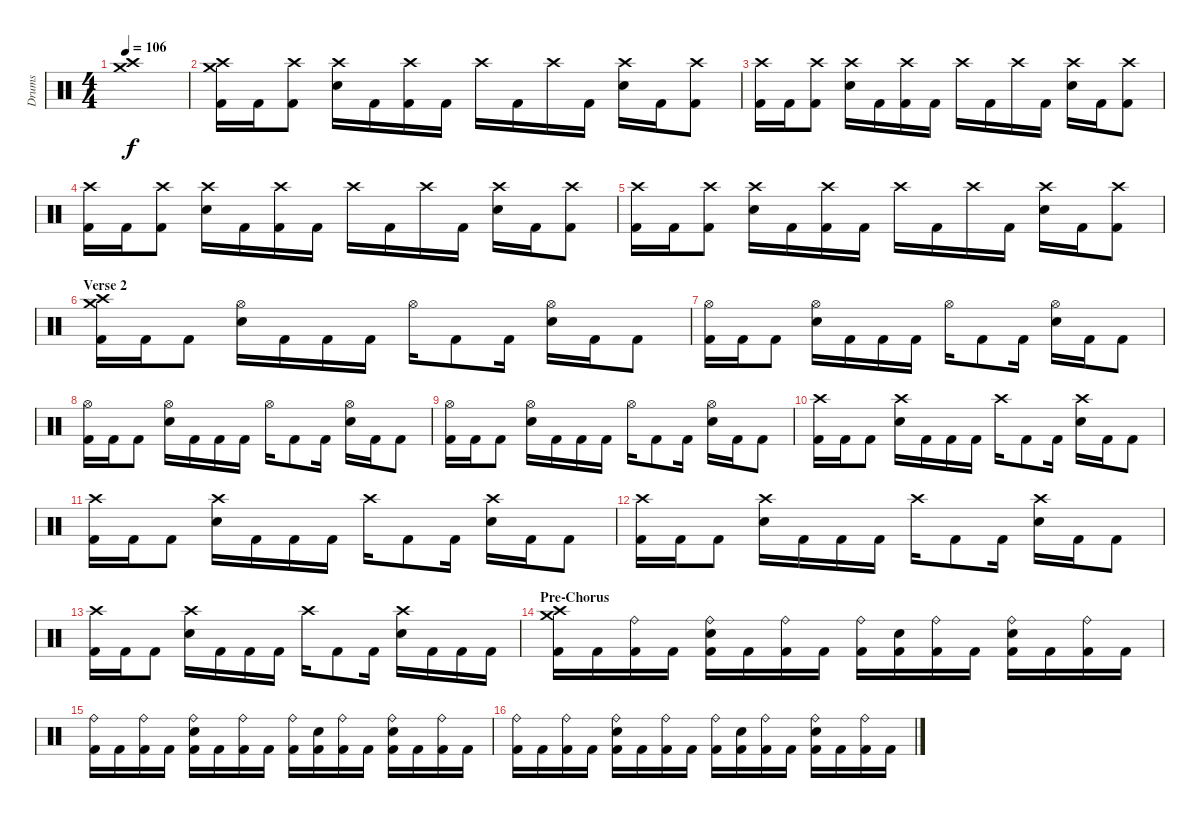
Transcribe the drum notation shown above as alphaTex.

\track ("Drums" "Drums") {instrument percussion}
\staff {score}
\articulation defaults
\ts (4 4)
\tempo 106
\clef neutral
\ks c
("Crash high (hit)" "Crash medium (hit)").1{dy f} |
("Crash high (hit)" "Crash medium (hit)" "Kick (hit) 2").16 "Kick (hit) 2".16 ("Crash high (hit)" "Kick (hit) 2").8 ("Crash high (hit)" "Electric Snare (hit)").16 "Kick (hit) 2".16 ("Crash high (hit)" "Kick (hit) 2").16 "Kick (hit) 2".16 "Crash high (hit)".16 "Kick (hit) 2".16 "Crash high (hit)".16 "Kick (hit) 2".16 ("Crash high (hit)" "Electric Snare (hit)").16 "Kick (hit) 2".16 ("Crash high (hit)" "Kick (hit) 2").8 |
("Crash high (hit)" "Kick (hit) 2").16 "Kick (hit) 2".16 ("Crash high (hit)" "Kick (hit) 2").8 ("Crash high (hit)" "Electric Snare (hit)").16 "Kick (hit) 2".16 ("Crash high (hit)" "Kick (hit) 2").16 "Kick (hit) 2".16 "Crash high (hit)".16 "Kick (hit) 2".16 "Crash high (hit)".16 "Kick (hit) 2".16 ("Crash high (hit)" "Electric Snare (hit)").16 "Kick (hit) 2".16 ("Crash high (hit)" "Kick (hit) 2").8 |
("Crash high (hit)" "Kick (hit) 2").16 "Kick (hit) 2".16 ("Crash high (hit)" "Kick (hit) 2").8 ("Crash high (hit)" "Electric Snare (hit)").16 "Kick (hit) 2".16 ("Crash high (hit)" "Kick (hit) 2").16 "Kick (hit) 2".16 "Crash high (hit)".16 "Kick (hit) 2".16 "Crash high (hit)".16 "Kick (hit) 2".16 ("Crash high (hit)" "Electric Snare (hit)").16 "Kick (hit) 2".16 ("Crash high (hit)" "Kick (hit) 2").8 |
("Crash high (hit)" "Kick (hit) 2").16 "Kick (hit) 2".16 ("Crash high (hit)" "Kick (hit) 2").8 ("Crash high (hit)" "Electric Snare (hit)").16 "Kick (hit) 2".16 ("Crash high (hit)" "Kick (hit) 2").16 "Kick (hit) 2".16 "Crash high (hit)".16 "Kick (hit) 2".16 "Crash high (hit)".16 "Kick (hit) 2".16 ("Crash high (hit)" "Electric Snare (hit)").16 "Kick (hit) 2".16 ("Crash high (hit)" "Kick (hit) 2").8 |
\section ("" "Verse 2")
("Crash high (hit)" "Crash medium (hit)" "Kick (hit) 2").16 "Kick (hit) 2".16 "Kick (hit) 2".8 ("Hi-Hat (open)" "Electric Snare (hit)").16 "Kick (hit) 2".16 "Kick (hit) 2".16 "Kick (hit) 2".16 "Hi-Hat (open)".16 "Kick (hit) 2".8 "Kick (hit) 2".16 ("Hi-Hat (open)" "Electric Snare (hit)").16 "Kick (hit) 2".16 "Kick (hit) 2".8 |
("Hi-Hat (open)" "Kick (hit) 2").16 "Kick (hit) 2".16 "Kick (hit) 2".8 ("Hi-Hat (open)" "Electric Snare (hit)").16 "Kick (hit) 2".16 "Kick (hit) 2".16 "Kick (hit) 2".16 "Hi-Hat (open)".16 "Kick (hit) 2".8 "Kick (hit) 2".16 ("Hi-Hat (open)" "Electric Snare (hit)").16 "Kick (hit) 2".16 "Kick (hit) 2".8 |
("Hi-Hat (open)" "Kick (hit) 2").16 "Kick (hit) 2".16 "Kick (hit) 2".8 ("Hi-Hat (open)" "Electric Snare (hit)").16 "Kick (hit) 2".16 "Kick (hit) 2".16 "Kick (hit) 2".16 "Hi-Hat (open)".16 "Kick (hit) 2".8 "Kick (hit) 2".16 ("Hi-Hat (open)" "Electric Snare (hit)").16 "Kick (hit) 2".16 "Kick (hit) 2".8 |
("Hi-Hat (open)" "Kick (hit) 2").16 "Kick (hit) 2".16 "Kick (hit) 2".8 ("Hi-Hat (open)" "Electric Snare (hit)").16 "Kick (hit) 2".16 "Kick (hit) 2".16 "Kick (hit) 2".16 "Hi-Hat (open)".16 "Kick (hit) 2".8 "Kick (hit) 2".16 ("Hi-Hat (open)" "Electric Snare (hit)").16 "Kick (hit) 2".16 "Kick (hit) 2".8 |
("Crash high (hit)" "Kick (hit) 2").16 "Kick (hit) 2".16 "Kick (hit) 2".8 ("Crash high (hit)" "Electric Snare (hit)").16 "Kick (hit) 2".16 "Kick (hit) 2".16 "Kick (hit) 2".16 "Crash high (hit)".16 "Kick (hit) 2".8 "Kick (hit) 2".16 ("Crash high (hit)" "Electric Snare (hit)").16 "Kick (hit) 2".16 "Kick (hit) 2".8 |
("Crash high (hit)" "Kick (hit) 2").16 "Kick (hit) 2".16 "Kick (hit) 2".8 ("Crash high (hit)" "Electric Snare (hit)").16 "Kick (hit) 2".16 "Kick (hit) 2".16 "Kick (hit) 2".16 "Crash high (hit)".16 "Kick (hit) 2".8 "Kick (hit) 2".16 ("Crash high (hit)" "Electric Snare (hit)").16 "Kick (hit) 2".16 "Kick (hit) 2".8 |
("Crash high (hit)" "Kick (hit) 2").16 "Kick (hit) 2".16 "Kick (hit) 2".8 ("Crash high (hit)" "Electric Snare (hit)").16 "Kick (hit) 2".16 "Kick (hit) 2".16 "Kick (hit) 2".16 "Crash high (hit)".16 "Kick (hit) 2".8 "Kick (hit) 2".16 ("Crash high (hit)" "Electric Snare (hit)").16 "Kick (hit) 2".16 "Kick (hit) 2".8 |
("Crash high (hit)" "Kick (hit) 2").16 "Kick (hit) 2".16 "Kick (hit) 2".8 ("Crash high (hit)" "Electric Snare (hit)").16 "Kick (hit) 2".16 "Kick (hit) 2".16 "Kick (hit) 2".16 "Crash high (hit)".16 "Kick (hit) 2".8 "Kick (hit) 2".16 ("Crash high (hit)" "Electric Snare (hit)").16 "Kick (hit) 2".16 "Kick (hit) 2".16 "Kick (hit) 2".16 |
\section ("" "Pre-Chorus")
("Crash high (hit)" "Crash medium (hit)" "Kick (hit) 2").16 "Kick (hit) 2".16 ("Ride (bell)" "Kick (hit) 2").16 "Kick (hit) 2".16 ("Ride (bell)" "Electric Snare (hit)" "Kick (hit) 2").16 "Kick (hit) 2".16 ("Ride (bell)" "Kick (hit) 2").16 "Kick (hit) 2".16 ("Ride (bell)" "Kick (hit) 2").16 ("Electric Snare (hit)" "Kick (hit) 2").16 ("Ride (bell)" "Kick (hit) 2").16 "Kick (hit) 2".16 ("Ride (bell)" "Electric Snare (hit)" "Kick (hit) 2").16 "Kick (hit) 2".16 ("Ride (bell)" "Kick (hit) 2").16 "Kick (hit) 2".16 |
("Ride (bell)" "Kick (hit) 2").16 "Kick (hit) 2".16 ("Ride (bell)" "Kick (hit) 2").16 "Kick (hit) 2".16 ("Ride (bell)" "Electric Snare (hit)" "Kick (hit) 2").16 "Kick (hit) 2".16 ("Ride (bell)" "Kick (hit) 2").16 "Kick (hit) 2".16 ("Ride (bell)" "Kick (hit) 2").16 ("Electric Snare (hit)" "Kick (hit) 2").16 ("Ride (bell)" "Kick (hit) 2").16 "Kick (hit) 2".16 ("Ride (bell)" "Electric Snare (hit)" "Kick (hit) 2").16 "Kick (hit) 2".16 ("Ride (bell)" "Kick (hit) 2").16 "Kick (hit) 2".16 |
("Ride (bell)" "Kick (hit) 2").16 "Kick (hit) 2".16 ("Ride (bell)" "Kick (hit) 2").16 "Kick (hit) 2".16 ("Ride (bell)" "Electric Snare (hit)" "Kick (hit) 2").16 "Kick (hit) 2".16 ("Ride (bell)" "Kick (hit) 2").16 "Kick (hit) 2".16 ("Ride (bell)" "Kick (hit) 2").16 ("Electric Snare (hit)" "Kick (hit) 2").16 ("Ride (bell)" "Kick (hit) 2").16 "Kick (hit) 2".16 ("Ride (bell)" "Electric Snare (hit)" "Kick (hit) 2").16 "Kick (hit) 2".16 ("Ride (bell)" "Kick (hit) 2").16 "Kick (hit) 2".16
